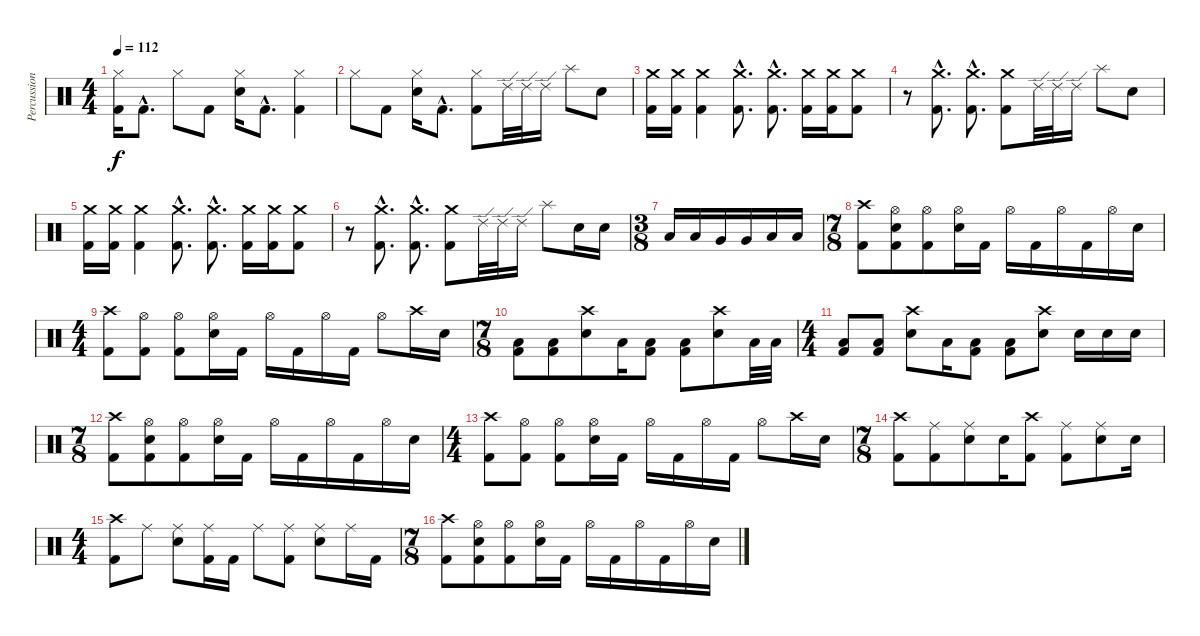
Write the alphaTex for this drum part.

\track ("Percussion" "Percussion") {instrument percussion}
\staff {score}
\articulation defaults
\ts (4 4)
\tempo 112
\clef neutral
\ks c
("Hi-Hat (closed)" "Kick (hit) 2").16{dy f} "Kick (hit) 2"{hac}.8{d} "Hi-Hat (closed)".8 "Kick (hit) 2".8 ("Hi-Hat (closed)" "Snare (hit) 2").16 "Kick (hit) 2"{hac}.8{d} ("Hi-Hat (closed)" "Kick (hit) 2").4 |
"Hi-Hat (closed)".8 "Kick (hit) 2".8 ("Hi-Hat (closed)" "Snare (hit) 2").16 "Kick (hit) 2"{hac}.8{d} ("Hi-Hat (closed)" "Kick (hit) 2").8 "Ride (edge) 2".32 "Ride (edge) 2".32 "Ride (edge) 2".16 "Splash (hit)".8 "Snare (hit) 2".8 |
("Crash medium (hit)" "Kick (hit) 2").16 ("Crash medium (hit)" "Kick (hit) 2").16 ("Crash medium (hit)" "Kick (hit) 2").4 ("Crash medium (hit)"{hac} "Kick (hit) 2"{hac}).8{d} ("Crash medium (hit)"{hac} "Kick (hit) 2"{hac}).8{d} ("Crash medium (hit)" "Kick (hit) 2").16 ("Crash medium (hit)" "Kick (hit) 2").16 ("Crash medium (hit)" "Kick (hit) 2").8 |
r.8 ("Crash medium (hit)"{hac} "Kick (hit) 2"{hac}).8{d} ("Crash medium (hit)"{hac} "Kick (hit) 2"{hac}).8{d} ("Crash medium (hit)" "Kick (hit) 2").8 "Ride (edge) 2".32 "Ride (edge) 2".32 "Ride (edge) 2".16 "Splash (hit)".8 "Snare (hit) 2".8 |
("Crash medium (hit)" "Kick (hit) 2").16 ("Crash medium (hit)" "Kick (hit) 2").16 ("Crash medium (hit)" "Kick (hit) 2").4 ("Crash medium (hit)"{hac} "Kick (hit) 2"{hac}).8{d} ("Crash medium (hit)"{hac} "Kick (hit) 2"{hac}).8{d} ("Crash medium (hit)" "Kick (hit) 2").16 ("Crash medium (hit)" "Kick (hit) 2").16 ("Crash medium (hit)" "Kick (hit) 2").8 |
r.8 ("Crash medium (hit)"{hac} "Kick (hit) 2"{hac}).8{d} ("Crash medium (hit)"{hac} "Kick (hit) 2"{hac}).8{d} ("Crash medium (hit)" "Kick (hit) 2").8 "Ride (edge) 2".32 "Ride (edge) 2".32 "Ride (edge) 2".16 "Splash (hit)".8 "Snare (hit) 2".16 "Snare (hit) 2".16 |
\ts (3 8)
"Low Tom (hit)".16 "Low Tom (hit)".16 "Very Low Tom (hit)".16 "Very Low Tom (hit)".16 "Low Floor Tom (hit)".16 "Low Floor Tom (hit)".16 |
\ts (7 8)
("Crash high (hit)" "Kick (hit) 2").8 ("Hi-Hat (open)" "Snare (hit) 2" "Kick (hit) 2").8 ("Hi-Hat (open)" "Kick (hit) 2").8 ("Hi-Hat (open)" "Snare (hit) 2").16 "Kick (hit) 2".16 "Hi-Hat (open)".16 "Kick (hit) 2".16 "Hi-Hat (open)".16 "Kick (hit) 2".16 "Hi-Hat (open)".16 "Snare (hit) 2".16 |
\ts (4 4)
("Crash high (hit)" "Kick (hit) 2").8 ("Hi-Hat (open)" "Kick (hit) 2").8 ("Hi-Hat (open)" "Kick (hit) 2").8 ("Hi-Hat (open)" "Snare (hit) 2").16 "Kick (hit) 2".16 "Hi-Hat (open)".16 "Kick (hit) 2".16 "Hi-Hat (open)".16 "Kick (hit) 2".16 "Hi-Hat (open)".8 "Crash high (hit)".16 "Snare (hit) 2".16 |
\ts (7 8)
("Low Floor Tom (hit)" "Kick (hit) 2").8 ("Low Floor Tom (hit)" "Kick (hit) 2").8 ("Crash high (hit)" "Snare (hit) 2").8 "Low Tom (hit)".16 ("Low Floor Tom (hit)" "Kick (hit) 2").8 ("Low Floor Tom (hit)" "Kick (hit) 2").8 ("Crash high (hit)" "Snare (hit) 2").8 "Low Tom (hit)".32 "Low Tom (hit)".32 |
\ts (4 4)
("Low Floor Tom (hit)" "Kick (hit) 2").8 ("Low Floor Tom (hit)" "Kick (hit) 2").8 ("Crash high (hit)" "Snare (hit) 2").8 "Low Tom (hit)".16 ("Low Floor Tom (hit)" "Kick (hit) 2").8 ("Low Floor Tom (hit)" "Kick (hit) 2").8 ("Crash high (hit)" "Snare (hit) 2").8 "Snare (hit) 2".16 "Snare (hit) 2".16 "Snare (hit) 2".16 |
\ts (7 8)
("Crash high (hit)" "Kick (hit) 2").8 ("Hi-Hat (open)" "Snare (hit) 2" "Kick (hit) 2").8 ("Hi-Hat (open)" "Kick (hit) 2").8 ("Hi-Hat (open)" "Snare (hit) 2").16 "Kick (hit) 2".16 "Hi-Hat (open)".16 "Kick (hit) 2".16 "Hi-Hat (open)".16 "Kick (hit) 2".16 "Hi-Hat (open)".16 "Snare (hit) 2".16 |
\ts (4 4)
("Crash high (hit)" "Kick (hit) 2").8 ("Hi-Hat (open)" "Kick (hit) 2").8 ("Hi-Hat (open)" "Kick (hit) 2").8 ("Hi-Hat (open)" "Snare (hit) 2").16 "Kick (hit) 2".16 "Hi-Hat (open)".16 "Kick (hit) 2".16 "Hi-Hat (open)".16 "Kick (hit) 2".16 "Hi-Hat (open)".8 "Crash high (hit)".16 "Snare (hit) 2".16 |
\ts (7 8)
("Crash high (hit)" "Kick (hit) 2").8 ("Ride (middle)" "Kick (hit) 2").8 ("Ride (middle)" "Snare (hit) 2").8 "Snare (hit) 2".16 ("Crash high (hit)" "Kick (hit) 2").8 ("Ride (middle)" "Kick (hit) 2").8 ("Ride (middle)" "Snare (hit) 2").8 "Snare (hit) 2".16 |
\ts (4 4)
("Crash high (hit)" "Kick (hit) 2").8 "Ride (middle)".8 ("Ride (middle)" "Snare (hit) 2").8 ("Ride (middle)" "Kick (hit) 2").16 "Kick (hit) 2".16 "Ride (middle)".8 ("Ride (middle)" "Kick (hit) 2").8 ("Ride (middle)" "Snare (hit) 2").8 "Ride (middle)".16 "Kick (hit) 2".16 |
\ts (7 8)
("Crash high (hit)" "Kick (hit) 2").8 ("Hi-Hat (open)" "Snare (hit) 2" "Kick (hit) 2").8 ("Hi-Hat (open)" "Kick (hit) 2").8 ("Hi-Hat (open)" "Snare (hit) 2").16 "Kick (hit) 2".16 "Hi-Hat (open)".16 "Kick (hit) 2".16 "Hi-Hat (open)".16 "Kick (hit) 2".16 "Hi-Hat (open)".16 "Snare (hit) 2".16
